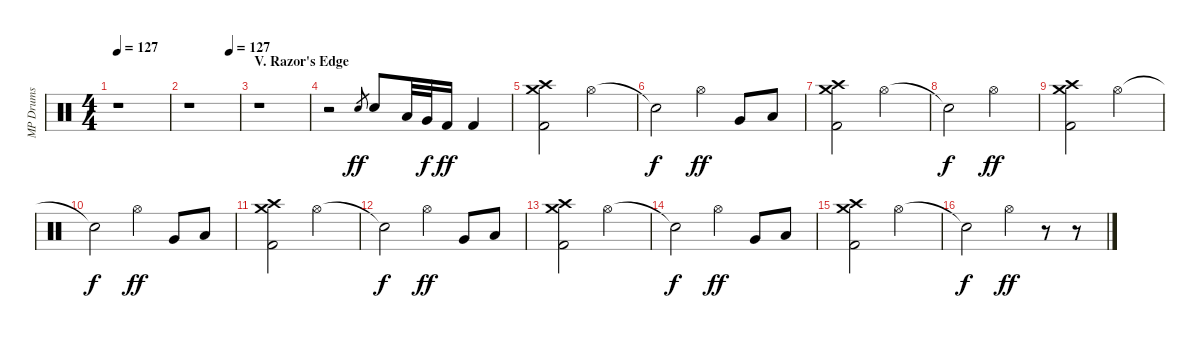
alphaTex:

\track ("MP Drums" "MP Drums") {instrument percussion}
\staff {score}
\articulation defaults
\ts (4 4)
\tempo 127
\clef neutral
\ks c
r.1{dy ff} |
\tempo (127 0.8125)
r.1 |
\section ("" "V. Razor's Edge")
r.1 |
r.2 "Snare (hit) 2".8{gr} "Snare (hit) 2".8 "Low Tom (hit)".32 "Very Low Tom (hit)".32{dy f} "Kick (hit) 2".16{dy ff} "Kick (hit) 2".4 |
("Crash high (hit)" "Crash medium (hit)" "Kick (hit) 2").2 "Hi-Hat (open)".2 |
"Snare (hit)"{t}.2{dy f} "Hi-Hat (open)".4{dy ff} "Very Low Tom (hit)".8 "Low Floor Tom (hit)".8 |
("Crash high (hit)" "Crash medium (hit)" "Kick (hit) 2").2 "Hi-Hat (open)".2 |
"Snare (hit)"{t}.2{dy f} "Hi-Hat (open)".2{dy ff} |
("Crash high (hit)" "Crash medium (hit)" "Kick (hit) 2").2 "Hi-Hat (open)".2 |
"Snare (hit)"{t}.2{dy f} "Hi-Hat (open)".4{dy ff} "Very Low Tom (hit)".8 "Low Floor Tom (hit)".8 |
("Crash high (hit)" "Crash medium (hit)" "Kick (hit) 2").2 "Hi-Hat (open)".2 |
"Snare (hit)"{t}.2{dy f} "Hi-Hat (open)".4{dy ff} "Very Low Tom (hit)".8 "Low Floor Tom (hit)".8 |
("Crash high (hit)" "Crash medium (hit)" "Kick (hit) 2").2 "Hi-Hat (open)".2 |
"Snare (hit)"{t}.2{dy f} "Hi-Hat (open)".4{dy ff} "Very Low Tom (hit)".8 "Low Floor Tom (hit)".8 |
("Crash high (hit)" "Crash medium (hit)" "Kick (hit) 2").2 "Hi-Hat (open)".2 |
"Snare (hit)"{t}.2{dy f} "Hi-Hat (open)".4{dy ff} r.8 r.8
